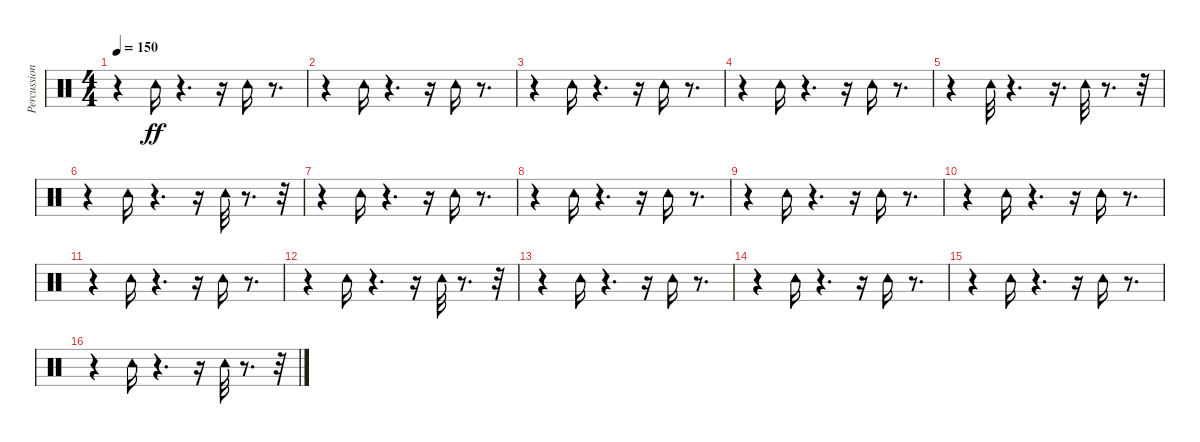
\track ("Percussion" "Percussion") {instrument percussion}
\staff {score}
\articulation defaults
\ts (4 4)
\tempo 150
\clef neutral
\ks c
r.4{dy ff} "Tambourine (hit)".16 r.4{d} r.16 "Tambourine (hit)".16 r.8{d} |
r.4 "Tambourine (hit)".16 r.4{d} r.16 "Tambourine (hit)".16 r.8{d} |
r.4 "Tambourine (hit)".16 r.4{d} r.16 "Tambourine (hit)".16 r.8{d} |
r.4 "Tambourine (hit)".16 r.4{d} r.16 "Tambourine (hit)".16 r.8{d} |
r.4 "Tambourine (hit)".32 r.4{d} r.16{d} "Tambourine (hit)".32 r.8{d} r.32 |
r.4 "Tambourine (hit)".16 r.4{d} r.16 "Tambourine (hit)".32 r.8{d} r.32 |
r.4 "Tambourine (hit)".16 r.4{d} r.16 "Tambourine (hit)".16 r.8{d} |
r.4 "Tambourine (hit)".16 r.4{d} r.16 "Tambourine (hit)".16 r.8{d} |
r.4 "Tambourine (hit)".16 r.4{d} r.16 "Tambourine (hit)".16 r.8{d} |
r.4 "Tambourine (hit)".16 r.4{d} r.16 "Tambourine (hit)".16 r.8{d} |
r.4 "Tambourine (hit)".16 r.4{d} r.16 "Tambourine (hit)".16 r.8{d} |
r.4 "Tambourine (hit)".16 r.4{d} r.16 "Tambourine (hit)".32 r.8{d} r.32 |
r.4 "Tambourine (hit)".16 r.4{d} r.16 "Tambourine (hit)".16 r.8{d} |
r.4 "Tambourine (hit)".16 r.4{d} r.16 "Tambourine (hit)".16 r.8{d} |
r.4 "Tambourine (hit)".16 r.4{d} r.16 "Tambourine (hit)".16 r.8{d} |
r.4 "Tambourine (hit)".16 r.4{d} r.16 "Tambourine (hit)".32 r.8{d} r.32
